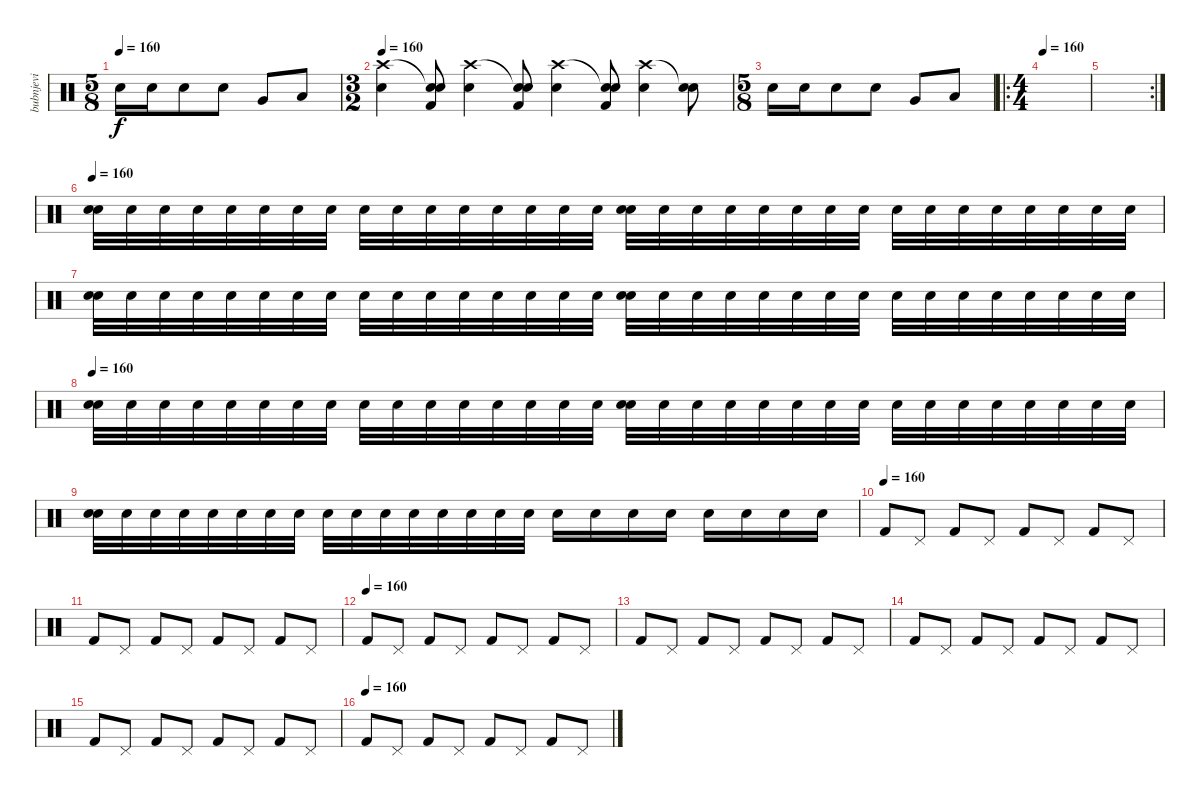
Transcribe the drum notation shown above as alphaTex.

\track ("bubnjevi" "bubnjevi") {instrument percussion}
\staff {score}
\articulation defaults
\ts (5 8)
\tempo 160
\clef neutral
\ks c "Electric Snare (hit)".16{dy f} "Electric Snare (hit)".16 "Electric Snare (hit)".8 "Electric Snare (hit)".8 "Very Low Tom (hit)".8 "Low Floor Tom (hit)".8
|
\ts (3 2)
\tempo 160
("Crash high (hit)" "Electric Snare (hit)").4 ("Snare (hit)"{t} "Electric Snare (hit)" "Kick (hit) 2").8 ("Crash high (hit)" "Electric Snare (hit)").4 ("Snare (hit)"{t} "Electric Snare (hit)" "Kick (hit) 2").8 ("Crash high (hit)" "Electric Snare (hit)").4 ("Snare (hit)"{t} "Electric Snare (hit)" "Kick (hit) 2").8 ("Crash high (hit)" "Electric Snare (hit)").4 ("Snare (hit)"{t} "Electric Snare (hit)").8 |
\ts (5 8)
"Electric Snare (hit)".16 "Electric Snare (hit)".16 "Electric Snare (hit)".8 "Electric Snare (hit)".8 "Very Low Tom (hit)".8 "Low Floor Tom (hit)".8 |
\ro
\ts (4 4)
\tempo 160
|
\rc 2
|
\tempo 160
("Electric Snare (hit)" "Electric Snare (hit)").32{volume 8} "Electric Snare (hit)".32{volume 5} "Electric Snare (hit)".32 "Electric Snare (hit)".32 "Electric Snare (hit)".32 "Electric Snare (hit)".32 "Electric Snare (hit)".32 "Electric Snare (hit)".32 "Electric Snare (hit)".32 "Electric Snare (hit)".32 "Electric Snare (hit)".32 "Electric Snare (hit)".32 "Electric Snare (hit)".32 "Electric Snare (hit)".32 "Electric Snare (hit)".32 "Electric Snare (hit)".32 ("Electric Snare (hit)" "Electric Snare (hit)").32{volume 8} "Electric Snare (hit)".32{volume 5} "Electric Snare (hit)".32 "Electric Snare (hit)".32 "Electric Snare (hit)".32 "Electric Snare (hit)".32 "Electric Snare (hit)".32 "Electric Snare (hit)".32 "Electric Snare (hit)".32 "Electric Snare (hit)".32 "Electric Snare (hit)".32 "Electric Snare (hit)".32 "Electric Snare (hit)".32 "Electric Snare (hit)".32 "Electric Snare (hit)".32 "Electric Snare (hit)".32 |
("Electric Snare (hit)" "Electric Snare (hit)").32{volume 8} "Electric Snare (hit)".32{volume 5} "Electric Snare (hit)".32 "Electric Snare (hit)".32 "Electric Snare (hit)".32 "Electric Snare (hit)".32 "Electric Snare (hit)".32 "Electric Snare (hit)".32 "Electric Snare (hit)".32 "Electric Snare (hit)".32 "Electric Snare (hit)".32 "Electric Snare (hit)".32 "Electric Snare (hit)".32 "Electric Snare (hit)".32 "Electric Snare (hit)".32 "Electric Snare (hit)".32 ("Electric Snare (hit)" "Electric Snare (hit)").32{volume 8} "Electric Snare (hit)".32{volume 5} "Electric Snare (hit)".32 "Electric Snare (hit)".32 "Electric Snare (hit)".32 "Electric Snare (hit)".32 "Electric Snare (hit)".32 "Electric Snare (hit)".32 "Electric Snare (hit)".32 "Electric Snare (hit)".32 "Electric Snare (hit)".32 "Electric Snare (hit)".32 "Electric Snare (hit)".32 "Electric Snare (hit)".32 "Electric Snare (hit)".32 "Electric Snare (hit)".32 |
\tempo 160
("Electric Snare (hit)" "Electric Snare (hit)").32{volume 8} "Electric Snare (hit)".32{volume 5} "Electric Snare (hit)".32 "Electric Snare (hit)".32 "Electric Snare (hit)".32 "Electric Snare (hit)".32 "Electric Snare (hit)".32 "Electric Snare (hit)".32 "Electric Snare (hit)".32 "Electric Snare (hit)".32 "Electric Snare (hit)".32 "Electric Snare (hit)".32 "Electric Snare (hit)".32 "Electric Snare (hit)".32 "Electric Snare (hit)".32 "Electric Snare (hit)".32 ("Electric Snare (hit)" "Electric Snare (hit)").32{volume 8} "Electric Snare (hit)".32{volume 5} "Electric Snare (hit)".32 "Electric Snare (hit)".32 "Electric Snare (hit)".32 "Electric Snare (hit)".32 "Electric Snare (hit)".32 "Electric Snare (hit)".32 "Electric Snare (hit)".32 "Electric Snare (hit)".32 "Electric Snare (hit)".32 "Electric Snare (hit)".32 "Electric Snare (hit)".32 "Electric Snare (hit)".32 "Electric Snare (hit)".32 "Electric Snare (hit)".32 |
("Electric Snare (hit)" "Electric Snare (hit)").32{volume 8} "Electric Snare (hit)".32{volume 5} "Electric Snare (hit)".32 "Electric Snare (hit)".32 "Electric Snare (hit)".32 "Electric Snare (hit)".32 "Electric Snare (hit)".32 "Electric Snare (hit)".32{volume 7} "Electric Snare (hit)".32 "Electric Snare (hit)".32 "Electric Snare (hit)".32{volume 9} "Electric Snare (hit)".32 "Electric Snare (hit)".32 "Electric Snare (hit)".32{volume 10} "Electric Snare (hit)".32 "Electric Snare (hit)".32 "Electric Snare (hit)".16{volume 15} "Electric Snare (hit)".16 "Electric Snare (hit)".16 "Electric Snare (hit)".16 "Electric Snare (hit)".16 "Electric Snare (hit)".16 "Electric Snare (hit)".16 "Electric Snare (hit)".16 |
\tempo (160)
"Kick (hit) 2".8 "Pedal Hi-Hat (hit)".8 "Kick (hit) 2".8 "Pedal Hi-Hat (hit)".8 "Kick (hit) 2".8 "Pedal Hi-Hat (hit)".8 "Kick (hit) 2".8 "Pedal Hi-Hat (hit)".8 |
"Kick (hit) 2".8 "Pedal Hi-Hat (hit)".8 "Kick (hit) 2".8 "Pedal Hi-Hat (hit)".8 "Kick (hit) 2".8 "Pedal Hi-Hat (hit)".8 "Kick (hit) 2".8 "Pedal Hi-Hat (hit)".8 |
\tempo (160)
"Kick (hit) 2".8 "Pedal Hi-Hat (hit)".8 "Kick (hit) 2".8 "Pedal Hi-Hat (hit)".8 "Kick (hit) 2".8 "Pedal Hi-Hat (hit)".8 "Kick (hit) 2".8 "Pedal Hi-Hat (hit)".8 |
"Kick (hit) 2".8 "Pedal Hi-Hat (hit)".8 "Kick (hit) 2".8 "Pedal Hi-Hat (hit)".8 "Kick (hit) 2".8 "Pedal Hi-Hat (hit)".8 "Kick (hit) 2".8 "Pedal Hi-Hat (hit)".8 |
"Kick (hit) 2".8 "Pedal Hi-Hat (hit)".8 "Kick (hit) 2".8 "Pedal Hi-Hat (hit)".8 "Kick (hit) 2".8 "Pedal Hi-Hat (hit)".8 "Kick (hit) 2".8 "Pedal Hi-Hat (hit)".8 |
"Kick (hit) 2".8 "Pedal Hi-Hat (hit)".8 "Kick (hit) 2".8 "Pedal Hi-Hat (hit)".8 "Kick (hit) 2".8 "Pedal Hi-Hat (hit)".8 "Kick (hit) 2".8 "Pedal Hi-Hat (hit)".8 |
\tempo (160)
"Kick (hit) 2".8 "Pedal Hi-Hat (hit)".8 "Kick (hit) 2".8 "Pedal Hi-Hat (hit)".8 "Kick (hit) 2".8 "Pedal Hi-Hat (hit)".8 "Kick (hit) 2".8 "Pedal Hi-Hat (hit)".8
